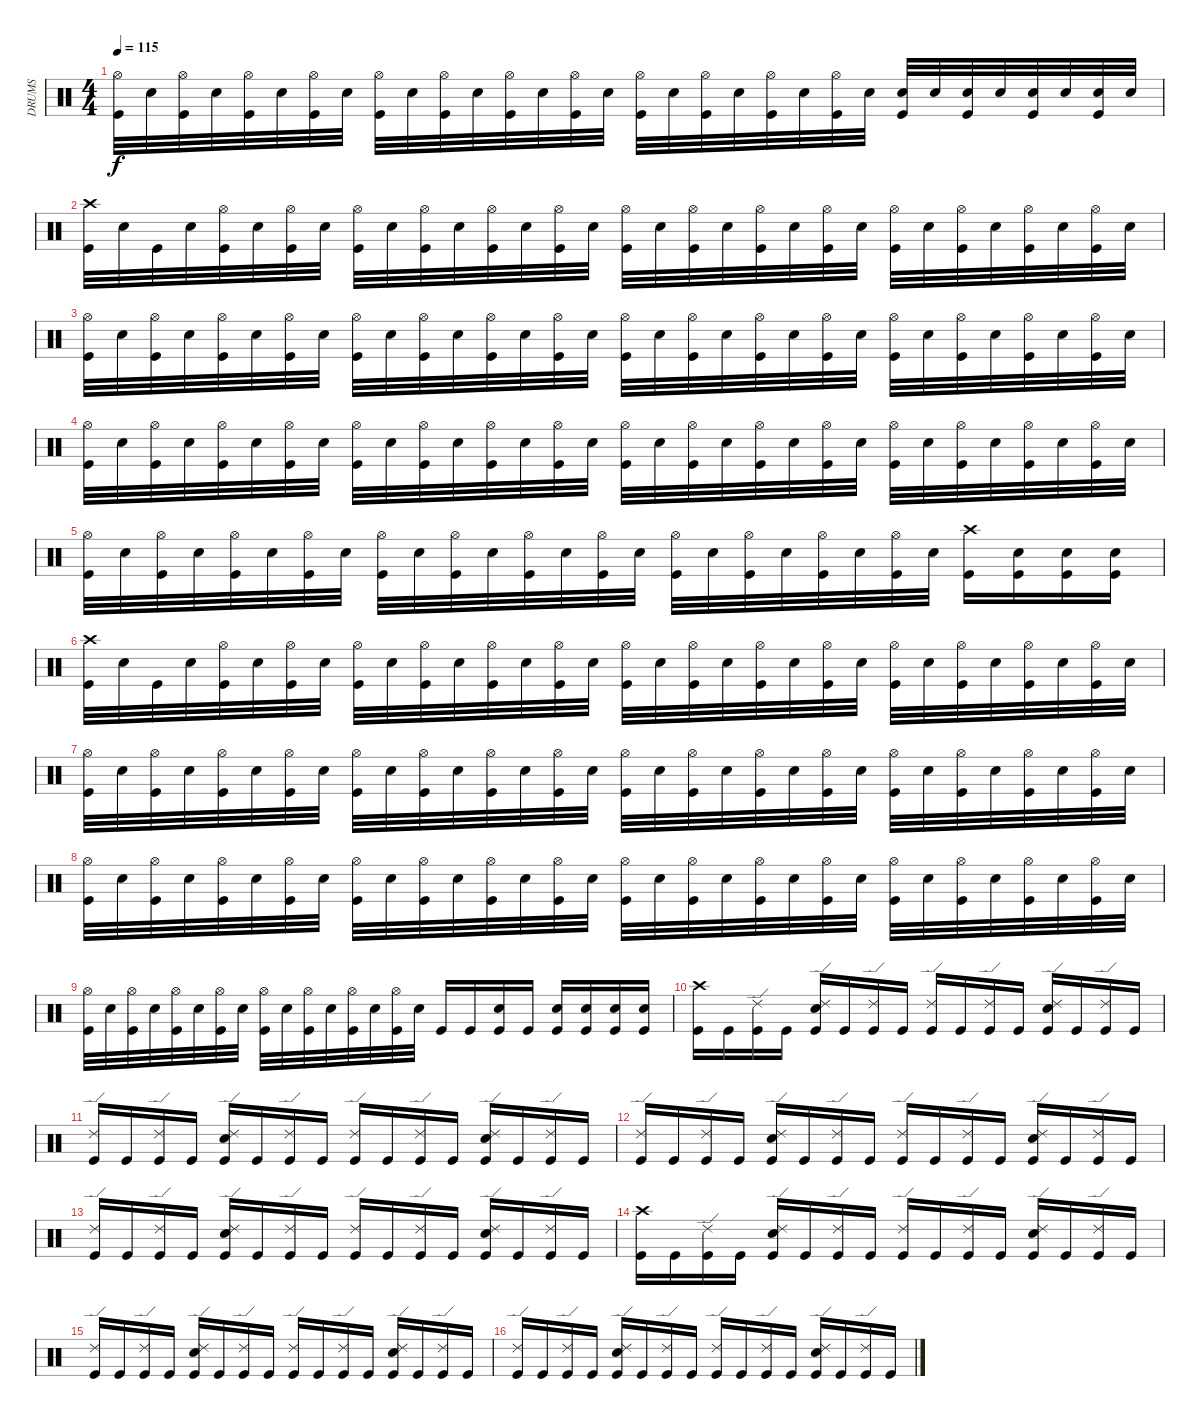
\track ("DRUMS" "DRUMS") {instrument percussion}
\staff {score}
\articulation defaults
\ts (4 4)
\tempo 115
\clef neutral
\ks c
("Hi-Hat (open)" "Kick (hit)").32{dy f} "Snare (hit) 2".32 ("Hi-Hat (open)" "Kick (hit)").32 "Snare (hit) 2".32 ("Hi-Hat (open)" "Kick (hit)").32 "Snare (hit) 2".32 ("Hi-Hat (open)" "Kick (hit)").32 "Snare (hit) 2".32 ("Hi-Hat (open)" "Kick (hit)").32 "Snare (hit) 2".32 ("Hi-Hat (open)" "Kick (hit)").32 "Snare (hit) 2".32 ("Hi-Hat (open)" "Kick (hit)").32 "Snare (hit) 2".32 ("Hi-Hat (open)" "Kick (hit)").32 "Snare (hit) 2".32 ("Hi-Hat (open)" "Kick (hit)").32 "Snare (hit) 2".32 ("Hi-Hat (open)" "Kick (hit)").32 "Snare (hit) 2".32 ("Hi-Hat (open)" "Kick (hit)").32 "Snare (hit) 2".32 ("Hi-Hat (open)" "Kick (hit)").32 "Snare (hit) 2".32 ("Snare (hit) 2" "Kick (hit)").32 "Snare (hit) 2".32 ("Snare (hit) 2" "Kick (hit)").32 "Snare (hit) 2".32 ("Snare (hit) 2" "Kick (hit)").32 "Snare (hit) 2".32 ("Snare (hit) 2" "Kick (hit)").32 "Snare (hit) 2".32 |
("Crash high (hit)" "Kick (hit)").32 "Snare (hit) 2".32 "Kick (hit)".32 "Snare (hit) 2".32 ("Hi-Hat (open)" "Kick (hit)").32 "Snare (hit) 2".32 ("Hi-Hat (open)" "Kick (hit)").32 "Snare (hit) 2".32 ("Hi-Hat (open)" "Kick (hit)").32 "Snare (hit) 2".32 ("Hi-Hat (open)" "Kick (hit)").32 "Snare (hit) 2".32 ("Hi-Hat (open)" "Kick (hit)").32 "Snare (hit) 2".32 ("Hi-Hat (open)" "Kick (hit)").32 "Snare (hit) 2".32 ("Hi-Hat (open)" "Kick (hit)").32 "Snare (hit) 2".32 ("Hi-Hat (open)" "Kick (hit)").32 "Snare (hit) 2".32 ("Hi-Hat (open)" "Kick (hit)").32 "Snare (hit) 2".32 ("Hi-Hat (open)" "Kick (hit)").32 "Snare (hit) 2".32 ("Hi-Hat (open)" "Kick (hit)").32 "Snare (hit) 2".32 ("Hi-Hat (open)" "Kick (hit)").32 "Snare (hit) 2".32 ("Hi-Hat (open)" "Kick (hit)").32 "Snare (hit) 2".32 ("Hi-Hat (open)" "Kick (hit)").32 "Snare (hit) 2".32 |
("Hi-Hat (open)" "Kick (hit)").32 "Snare (hit) 2".32 ("Hi-Hat (open)" "Kick (hit)").32 "Snare (hit) 2".32 ("Hi-Hat (open)" "Kick (hit)").32 "Snare (hit) 2".32 ("Hi-Hat (open)" "Kick (hit)").32 "Snare (hit) 2".32 ("Hi-Hat (open)" "Kick (hit)").32 "Snare (hit) 2".32 ("Hi-Hat (open)" "Kick (hit)").32 "Snare (hit) 2".32 ("Hi-Hat (open)" "Kick (hit)").32 "Snare (hit) 2".32 ("Hi-Hat (open)" "Kick (hit)").32 "Snare (hit) 2".32 ("Hi-Hat (open)" "Kick (hit)").32 "Snare (hit) 2".32 ("Hi-Hat (open)" "Kick (hit)").32 "Snare (hit) 2".32 ("Hi-Hat (open)" "Kick (hit)").32 "Snare (hit) 2".32 ("Hi-Hat (open)" "Kick (hit)").32 "Snare (hit) 2".32 ("Hi-Hat (open)" "Kick (hit)").32 "Snare (hit) 2".32 ("Hi-Hat (open)" "Kick (hit)").32 "Snare (hit) 2".32 ("Hi-Hat (open)" "Kick (hit)").32 "Snare (hit) 2".32 ("Hi-Hat (open)" "Kick (hit)").32 "Snare (hit) 2".32 |
("Hi-Hat (open)" "Kick (hit)").32 "Snare (hit) 2".32 ("Hi-Hat (open)" "Kick (hit)").32 "Snare (hit) 2".32 ("Hi-Hat (open)" "Kick (hit)").32 "Snare (hit) 2".32 ("Hi-Hat (open)" "Kick (hit)").32 "Snare (hit) 2".32 ("Hi-Hat (open)" "Kick (hit)").32 "Snare (hit) 2".32 ("Hi-Hat (open)" "Kick (hit)").32 "Snare (hit) 2".32 ("Hi-Hat (open)" "Kick (hit)").32 "Snare (hit) 2".32 ("Hi-Hat (open)" "Kick (hit)").32 "Snare (hit) 2".32 ("Hi-Hat (open)" "Kick (hit)").32 "Snare (hit) 2".32 ("Hi-Hat (open)" "Kick (hit)").32 "Snare (hit) 2".32 ("Hi-Hat (open)" "Kick (hit)").32 "Snare (hit) 2".32 ("Hi-Hat (open)" "Kick (hit)").32 "Snare (hit) 2".32 ("Hi-Hat (open)" "Kick (hit)").32 "Snare (hit) 2".32 ("Hi-Hat (open)" "Kick (hit)").32 "Snare (hit) 2".32 ("Hi-Hat (open)" "Kick (hit)").32 "Snare (hit) 2".32 ("Hi-Hat (open)" "Kick (hit)").32 "Snare (hit) 2".32 |
("Hi-Hat (open)" "Kick (hit)").32 "Snare (hit) 2".32 ("Hi-Hat (open)" "Kick (hit)").32 "Snare (hit) 2".32 ("Hi-Hat (open)" "Kick (hit)").32 "Snare (hit) 2".32 ("Hi-Hat (open)" "Kick (hit)").32 "Snare (hit) 2".32 ("Hi-Hat (open)" "Kick (hit)").32 "Snare (hit) 2".32 ("Hi-Hat (open)" "Kick (hit)").32 "Snare (hit) 2".32 ("Hi-Hat (open)" "Kick (hit)").32 "Snare (hit) 2".32 ("Hi-Hat (open)" "Kick (hit)").32 "Snare (hit) 2".32 ("Hi-Hat (open)" "Kick (hit)").32 "Snare (hit) 2".32 ("Hi-Hat (open)" "Kick (hit)").32 "Snare (hit) 2".32 ("Hi-Hat (open)" "Kick (hit)").32 "Snare (hit) 2".32 ("Hi-Hat (open)" "Kick (hit)").32 "Snare (hit) 2".32 ("Crash high (hit)" "Kick (hit)").16 ("Snare (hit) 2" "Kick (hit)").16 ("Snare (hit) 2" "Kick (hit)").16 ("Snare (hit) 2" "Kick (hit)").16 |
("Crash high (hit)" "Kick (hit)").32 "Snare (hit) 2".32 "Kick (hit)".32 "Snare (hit) 2".32 ("Hi-Hat (open)" "Kick (hit)").32 "Snare (hit) 2".32 ("Hi-Hat (open)" "Kick (hit)").32 "Snare (hit) 2".32 ("Hi-Hat (open)" "Kick (hit)").32 "Snare (hit) 2".32 ("Hi-Hat (open)" "Kick (hit)").32 "Snare (hit) 2".32 ("Hi-Hat (open)" "Kick (hit)").32 "Snare (hit) 2".32 ("Hi-Hat (open)" "Kick (hit)").32 "Snare (hit) 2".32 ("Hi-Hat (open)" "Kick (hit)").32 "Snare (hit) 2".32 ("Hi-Hat (open)" "Kick (hit)").32 "Snare (hit) 2".32 ("Hi-Hat (open)" "Kick (hit)").32 "Snare (hit) 2".32 ("Hi-Hat (open)" "Kick (hit)").32 "Snare (hit) 2".32 ("Hi-Hat (open)" "Kick (hit)").32 "Snare (hit) 2".32 ("Hi-Hat (open)" "Kick (hit)").32 "Snare (hit) 2".32 ("Hi-Hat (open)" "Kick (hit)").32 "Snare (hit) 2".32 ("Hi-Hat (open)" "Kick (hit)").32 "Snare (hit) 2".32 |
("Hi-Hat (open)" "Kick (hit)").32 "Snare (hit) 2".32 ("Hi-Hat (open)" "Kick (hit)").32 "Snare (hit) 2".32 ("Hi-Hat (open)" "Kick (hit)").32 "Snare (hit) 2".32 ("Hi-Hat (open)" "Kick (hit)").32 "Snare (hit) 2".32 ("Hi-Hat (open)" "Kick (hit)").32 "Snare (hit) 2".32 ("Hi-Hat (open)" "Kick (hit)").32 "Snare (hit) 2".32 ("Hi-Hat (open)" "Kick (hit)").32 "Snare (hit) 2".32 ("Hi-Hat (open)" "Kick (hit)").32 "Snare (hit) 2".32 ("Hi-Hat (open)" "Kick (hit)").32 "Snare (hit) 2".32 ("Hi-Hat (open)" "Kick (hit)").32 "Snare (hit) 2".32 ("Hi-Hat (open)" "Kick (hit)").32 "Snare (hit) 2".32 ("Hi-Hat (open)" "Kick (hit)").32 "Snare (hit) 2".32 ("Hi-Hat (open)" "Kick (hit)").32 "Snare (hit) 2".32 ("Hi-Hat (open)" "Kick (hit)").32 "Snare (hit) 2".32 ("Hi-Hat (open)" "Kick (hit)").32 "Snare (hit) 2".32 ("Hi-Hat (open)" "Kick (hit)").32 "Snare (hit) 2".32 |
("Hi-Hat (open)" "Kick (hit)").32 "Snare (hit) 2".32 ("Hi-Hat (open)" "Kick (hit)").32 "Snare (hit) 2".32 ("Hi-Hat (open)" "Kick (hit)").32 "Snare (hit) 2".32 ("Hi-Hat (open)" "Kick (hit)").32 "Snare (hit) 2".32 ("Hi-Hat (open)" "Kick (hit)").32 "Snare (hit) 2".32 ("Hi-Hat (open)" "Kick (hit)").32 "Snare (hit) 2".32 ("Hi-Hat (open)" "Kick (hit)").32 "Snare (hit) 2".32 ("Hi-Hat (open)" "Kick (hit)").32 "Snare (hit) 2".32 ("Hi-Hat (open)" "Kick (hit)").32 "Snare (hit) 2".32 ("Hi-Hat (open)" "Kick (hit)").32 "Snare (hit) 2".32 ("Hi-Hat (open)" "Kick (hit)").32 "Snare (hit) 2".32 ("Hi-Hat (open)" "Kick (hit)").32 "Snare (hit) 2".32 ("Hi-Hat (open)" "Kick (hit)").32 "Snare (hit) 2".32 ("Hi-Hat (open)" "Kick (hit)").32 "Snare (hit) 2".32 ("Hi-Hat (open)" "Kick (hit)").32 "Snare (hit) 2".32 ("Hi-Hat (open)" "Kick (hit)").32 "Snare (hit) 2".32 |
("Hi-Hat (open)" "Kick (hit)").32 "Snare (hit) 2".32 ("Hi-Hat (open)" "Kick (hit)").32 "Snare (hit) 2".32 ("Hi-Hat (open)" "Kick (hit)").32 "Snare (hit) 2".32 ("Hi-Hat (open)" "Kick (hit)").32 "Snare (hit) 2".32 ("Hi-Hat (open)" "Kick (hit)").32 "Snare (hit) 2".32 ("Hi-Hat (open)" "Kick (hit)").32 "Snare (hit) 2".32 ("Hi-Hat (open)" "Kick (hit)").32 "Snare (hit) 2".32 ("Hi-Hat (open)" "Kick (hit)").32 "Snare (hit) 2".32 "Kick (hit)".16 "Kick (hit)".16 ("Snare (hit) 2" "Kick (hit)").16 "Kick (hit)".16 ("Snare (hit) 2" "Kick (hit)").16 ("Snare (hit) 2" "Kick (hit)").16 ("Snare (hit) 2" "Kick (hit)").16 ("Snare (hit) 2" "Kick (hit)").16 |
("Crash high (hit)" "Kick (hit)").16 "Kick (hit)".16 ("Ride (edge) 2" "Kick (hit)").16 "Kick (hit)".16 ("Ride (edge) 2" "Snare (hit) 2" "Kick (hit)").16 "Kick (hit)".16 ("Ride (edge) 2" "Kick (hit)").16 "Kick (hit)".16 ("Ride (edge) 2" "Kick (hit)").16 "Kick (hit)".16 ("Ride (edge) 2" "Kick (hit)").16 "Kick (hit)".16 ("Ride (edge) 2" "Snare (hit) 2" "Kick (hit)").16 "Kick (hit)".16 ("Ride (edge) 2" "Kick (hit)").16 "Kick (hit)".16 |
("Ride (edge) 2" "Kick (hit)").16 "Kick (hit)".16 ("Ride (edge) 2" "Kick (hit)").16 "Kick (hit)".16 ("Ride (edge) 2" "Snare (hit) 2" "Kick (hit)").16 "Kick (hit)".16 ("Ride (edge) 2" "Kick (hit)").16 "Kick (hit)".16 ("Ride (edge) 2" "Kick (hit)").16 "Kick (hit)".16 ("Ride (edge) 2" "Kick (hit)").16 "Kick (hit)".16 ("Ride (edge) 2" "Snare (hit) 2" "Kick (hit)").16 "Kick (hit)".16 ("Ride (edge) 2" "Kick (hit)").16 "Kick (hit)".16 |
("Ride (edge) 2" "Kick (hit)").16 "Kick (hit)".16 ("Ride (edge) 2" "Kick (hit)").16 "Kick (hit)".16 ("Ride (edge) 2" "Snare (hit) 2" "Kick (hit)").16 "Kick (hit)".16 ("Ride (edge) 2" "Kick (hit)").16 "Kick (hit)".16 ("Ride (edge) 2" "Kick (hit)").16 "Kick (hit)".16 ("Ride (edge) 2" "Kick (hit)").16 "Kick (hit)".16 ("Ride (edge) 2" "Snare (hit) 2" "Kick (hit)").16 "Kick (hit)".16 ("Ride (edge) 2" "Kick (hit)").16 "Kick (hit)".16 |
("Ride (edge) 2" "Kick (hit)").16 "Kick (hit)".16 ("Ride (edge) 2" "Kick (hit)").16 "Kick (hit)".16 ("Ride (edge) 2" "Snare (hit) 2" "Kick (hit)").16 "Kick (hit)".16 ("Ride (edge) 2" "Kick (hit)").16 "Kick (hit)".16 ("Ride (edge) 2" "Kick (hit)").16 "Kick (hit)".16 ("Ride (edge) 2" "Kick (hit)").16 "Kick (hit)".16 ("Ride (edge) 2" "Snare (hit) 2" "Kick (hit)").16 "Kick (hit)".16 ("Ride (edge) 2" "Kick (hit)").16 "Kick (hit)".16 |
("Crash high (hit)" "Kick (hit)").16 "Kick (hit)".16 ("Ride (edge) 2" "Kick (hit)").16 "Kick (hit)".16 ("Ride (edge) 2" "Snare (hit) 2" "Kick (hit)").16 "Kick (hit)".16 ("Ride (edge) 2" "Kick (hit)").16 "Kick (hit)".16 ("Ride (edge) 2" "Kick (hit)").16 "Kick (hit)".16 ("Ride (edge) 2" "Kick (hit)").16 "Kick (hit)".16 ("Ride (edge) 2" "Snare (hit) 2" "Kick (hit)").16 "Kick (hit)".16 ("Ride (edge) 2" "Kick (hit)").16 "Kick (hit)".16 |
("Ride (edge) 2" "Kick (hit)").16 "Kick (hit)".16 ("Ride (edge) 2" "Kick (hit)").16 "Kick (hit)".16 ("Ride (edge) 2" "Snare (hit) 2" "Kick (hit)").16 "Kick (hit)".16 ("Ride (edge) 2" "Kick (hit)").16 "Kick (hit)".16 ("Ride (edge) 2" "Kick (hit)").16 "Kick (hit)".16 ("Ride (edge) 2" "Kick (hit)").16 "Kick (hit)".16 ("Ride (edge) 2" "Snare (hit) 2" "Kick (hit)").16 "Kick (hit)".16 ("Ride (edge) 2" "Kick (hit)").16 "Kick (hit)".16 |
("Ride (edge) 2" "Kick (hit)").16 "Kick (hit)".16 ("Ride (edge) 2" "Kick (hit)").16 "Kick (hit)".16 ("Ride (edge) 2" "Snare (hit) 2" "Kick (hit)").16 "Kick (hit)".16 ("Ride (edge) 2" "Kick (hit)").16 "Kick (hit)".16 ("Ride (edge) 2" "Kick (hit)").16 "Kick (hit)".16 ("Ride (edge) 2" "Kick (hit)").16 "Kick (hit)".16 ("Ride (edge) 2" "Snare (hit) 2" "Kick (hit)").16 "Kick (hit)".16 ("Ride (edge) 2" "Kick (hit)").16 "Kick (hit)".16
